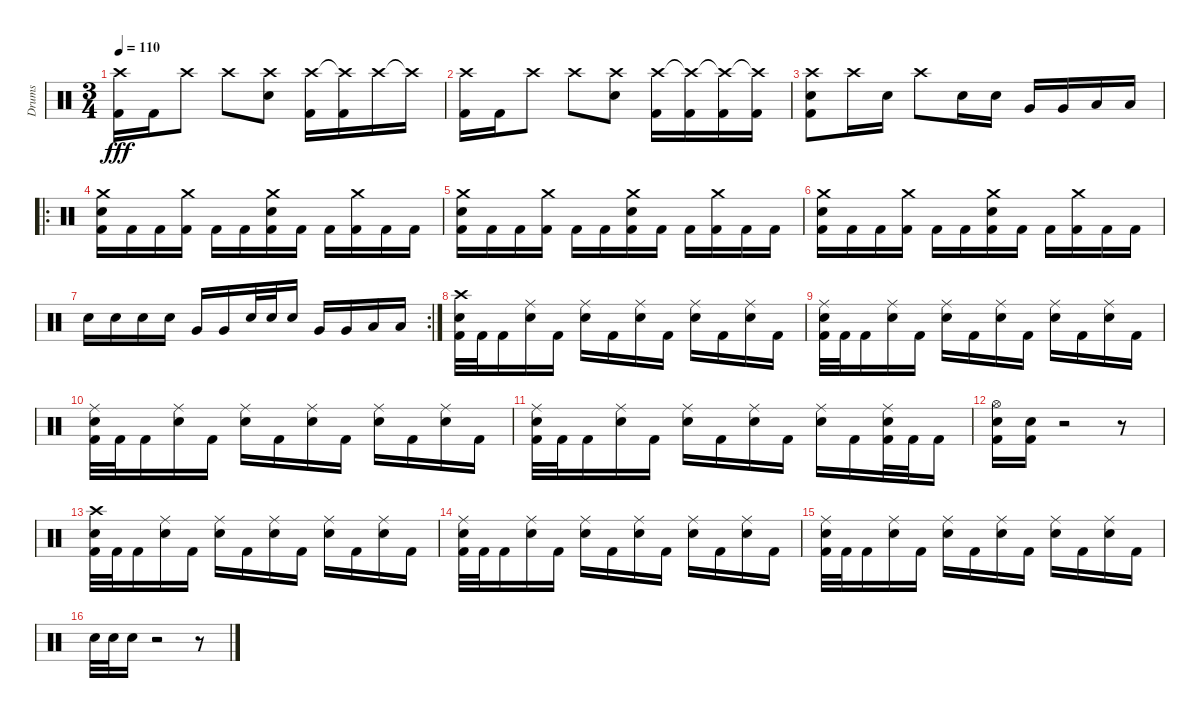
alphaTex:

\track ("Drums" "Drums") {instrument percussion}
\staff {score}
\articulation defaults
\ts (3 4)
\tempo 110
\clef neutral
\ks c
("Crash high (hit)" "Kick (hit) 2").16{dy fff} "Kick (hit) 2".16 "Crash high (hit)".8 "Crash high (hit)".8 ("Crash high (hit)" "Electric Snare (hit)").8 ("Crash high (hit)" "Kick (hit) 2").16 ("Crash high (hit)"{t} "Kick (hit) 2").16 "Crash high (hit)".16 "Crash high (hit)"{t}.16 |
("Crash high (hit)" "Kick (hit) 2").16 "Kick (hit) 2".16 "Crash high (hit)".8 "Crash high (hit)".8 ("Crash high (hit)" "Electric Snare (hit)").8 ("Crash high (hit)" "Kick (hit) 2").16 ("Crash high (hit)"{t} "Kick (hit) 2").16 ("Crash high (hit)"{t} "Kick (hit) 2").16 ("Crash high (hit)"{t} "Kick (hit) 2").16 |
("Crash high (hit)" "Electric Snare (hit)" "Kick (hit) 2").8 "Crash high (hit)".16 "Electric Snare (hit)".16 "Crash high (hit)".8 "Electric Snare (hit)".16 "Electric Snare (hit)".16 "Very Low Tom (hit)".16 "Very Low Tom (hit)".16 "Low Tom (hit)".16 "Low Tom (hit)".16 |
\ro
("Crash medium (hit)" "Electric Snare (hit)" "Kick (hit) 2").16 "Kick (hit) 2".16 "Kick (hit) 2".16 ("Crash medium (hit)" "Kick (hit) 2").16 "Kick (hit) 2".16 "Kick (hit) 2".16 ("Crash medium (hit)" "Electric Snare (hit)" "Kick (hit) 2").16 "Kick (hit) 2".16 "Kick (hit) 2".16 ("Crash medium (hit)" "Kick (hit) 2").16 "Kick (hit) 2".16 "Kick (hit) 2".16 |
("Crash medium (hit)" "Electric Snare (hit)" "Kick (hit) 2").16 "Kick (hit) 2".16 "Kick (hit) 2".16 ("Crash medium (hit)" "Kick (hit) 2").16 "Kick (hit) 2".16 "Kick (hit) 2".16 ("Crash medium (hit)" "Electric Snare (hit)" "Kick (hit) 2").16 "Kick (hit) 2".16 "Kick (hit) 2".16 ("Crash medium (hit)" "Kick (hit) 2").16 "Kick (hit) 2".16 "Kick (hit) 2".16 |
("Crash medium (hit)" "Electric Snare (hit)" "Kick (hit) 2").16 "Kick (hit) 2".16 "Kick (hit) 2".16 ("Crash medium (hit)" "Kick (hit) 2").16 "Kick (hit) 2".16 "Kick (hit) 2".16 ("Crash medium (hit)" "Electric Snare (hit)" "Kick (hit) 2").16 "Kick (hit) 2".16 "Kick (hit) 2".16 ("Crash medium (hit)" "Kick (hit) 2").16 "Kick (hit) 2".16 "Kick (hit) 2".16 |
\rc 2 "Electric Snare (hit)".16 "Electric Snare (hit)".16 "Electric Snare (hit)".16 "Electric Snare (hit)".16 "Very Low Tom (hit)".16 "Very Low Tom (hit)".16 "Electric Snare (hit)".32 "Electric Snare (hit)".32 "Electric Snare (hit)".16 "Very Low Tom (hit)".16 "Very Low Tom (hit)".16 "Low Tom (hit)".16 "Low Tom (hit)".16
|
("Crash high (hit)" "Electric Snare (hit)" "Kick (hit) 2").32 "Kick (hit) 2".32 "Kick (hit) 2".16 ("Ride (middle)" "Electric Snare (hit)").16 "Kick (hit) 2".16 ("Ride (middle)" "Electric Snare (hit)").16 "Kick (hit) 2".16 ("Ride (middle)" "Electric Snare (hit)").16 "Kick (hit) 2".16 ("Ride (middle)" "Electric Snare (hit)").16 "Kick (hit) 2".16 ("Ride (middle)" "Electric Snare (hit)").16 "Kick (hit) 2".16 |
("Ride (middle)" "Electric Snare (hit)" "Kick (hit) 2").32 "Kick (hit) 2".32 "Kick (hit) 2".16 ("Ride (middle)" "Electric Snare (hit)").16 "Kick (hit) 2".16 ("Ride (middle)" "Electric Snare (hit)").16 "Kick (hit) 2".16 ("Ride (middle)" "Electric Snare (hit)").16 "Kick (hit) 2".16 ("Ride (middle)" "Electric Snare (hit)").16 "Kick (hit) 2".16 ("Ride (middle)" "Electric Snare (hit)").16 "Kick (hit) 2".16 |
("Ride (middle)" "Electric Snare (hit)" "Kick (hit) 2").32 "Kick (hit) 2".32 "Kick (hit) 2".16 ("Ride (middle)" "Electric Snare (hit)").16 "Kick (hit) 2".16 ("Ride (middle)" "Electric Snare (hit)").16 "Kick (hit) 2".16 ("Ride (middle)" "Electric Snare (hit)").16 "Kick (hit) 2".16 ("Ride (middle)" "Electric Snare (hit)").16 "Kick (hit) 2".16 ("Ride (middle)" "Electric Snare (hit)").16 "Kick (hit) 2".16 |
("Ride (middle)" "Electric Snare (hit)" "Kick (hit) 2").32 "Kick (hit) 2".32 "Kick (hit) 2".16 ("Ride (middle)" "Electric Snare (hit)").16 "Kick (hit) 2".16 ("Ride (middle)" "Electric Snare (hit)").16 "Kick (hit) 2".16 ("Ride (middle)" "Electric Snare (hit)").16 "Kick (hit) 2".16 ("Ride (middle)" "Electric Snare (hit)").16 "Kick (hit) 2".16 ("Ride (middle)" "Electric Snare (hit)" "Kick (hit) 2").32 "Kick (hit) 2".32 "Kick (hit) 2".16 |
("Hi-Hat (open)" "Electric Snare (hit)" "Kick (hit) 2").16 ("Electric Snare (hit)" "Kick (hit) 2").16 r.2 r.8 |
("Crash high (hit)" "Electric Snare (hit)" "Kick (hit) 2").32 "Kick (hit) 2".32 "Kick (hit) 2".16 ("Ride (middle)" "Electric Snare (hit)").16 "Kick (hit) 2".16 ("Ride (middle)" "Electric Snare (hit)").16 "Kick (hit) 2".16 ("Ride (middle)" "Electric Snare (hit)").16 "Kick (hit) 2".16 ("Ride (middle)" "Electric Snare (hit)").16 "Kick (hit) 2".16 ("Ride (middle)" "Electric Snare (hit)").16 "Kick (hit) 2".16 |
("Ride (middle)" "Electric Snare (hit)" "Kick (hit) 2").32 "Kick (hit) 2".32 "Kick (hit) 2".16 ("Ride (middle)" "Electric Snare (hit)").16 "Kick (hit) 2".16 ("Ride (middle)" "Electric Snare (hit)").16 "Kick (hit) 2".16 ("Ride (middle)" "Electric Snare (hit)").16 "Kick (hit) 2".16 ("Ride (middle)" "Electric Snare (hit)").16 "Kick (hit) 2".16 ("Ride (middle)" "Electric Snare (hit)").16 "Kick (hit) 2".16 |
("Ride (middle)" "Electric Snare (hit)" "Kick (hit) 2").32 "Kick (hit) 2".32 "Kick (hit) 2".16 ("Ride (middle)" "Electric Snare (hit)").16 "Kick (hit) 2".16 ("Ride (middle)" "Electric Snare (hit)").16 "Kick (hit) 2".16 ("Ride (middle)" "Electric Snare (hit)").16 "Kick (hit) 2".16 ("Ride (middle)" "Electric Snare (hit)").16 "Kick (hit) 2".16 ("Ride (middle)" "Electric Snare (hit)").16 "Kick (hit) 2".16 |
"Electric Snare (hit)".32 "Electric Snare (hit)".32 "Electric Snare (hit)".16 r.2 r.8
